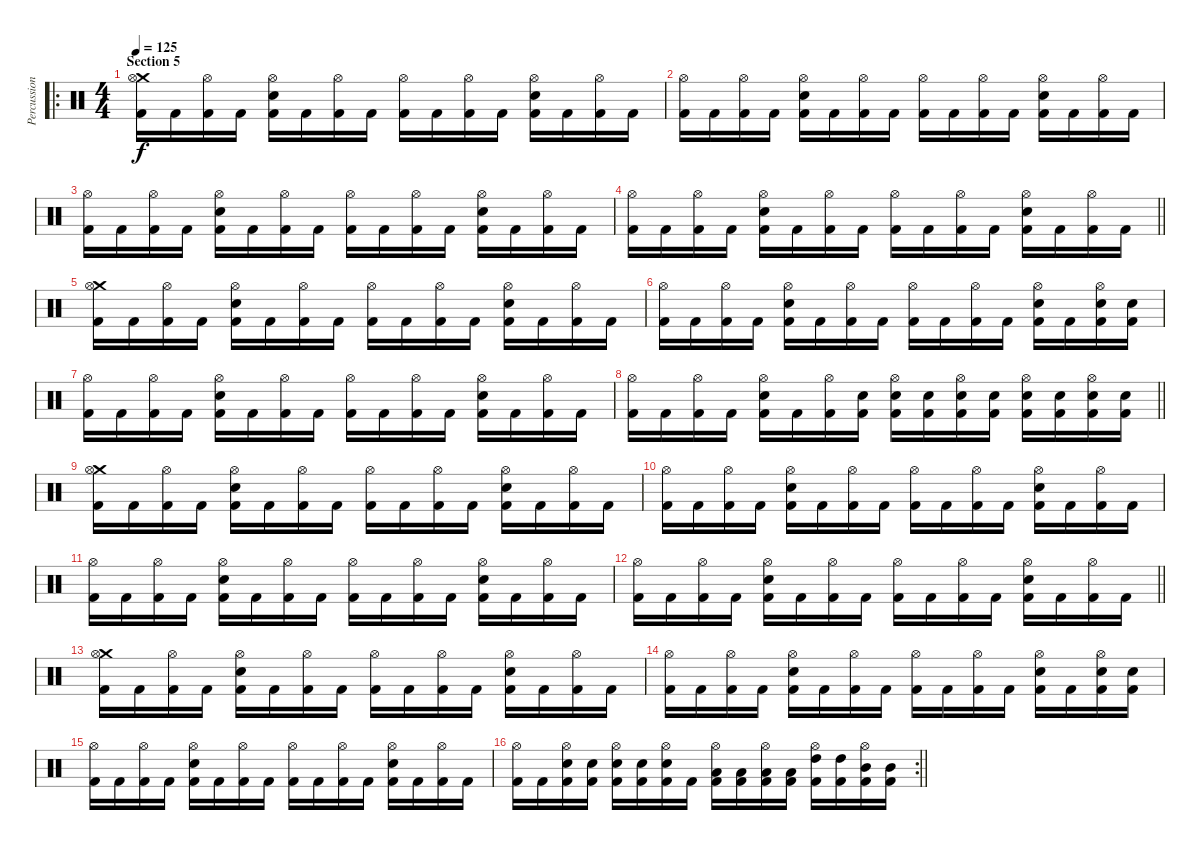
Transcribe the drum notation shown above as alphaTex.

\track ("Percussions" "Percussion") {instrument percussion}
\staff {score}
\articulation defaults
\ro
\ts (4 4)
\section ("" "Section 5")
\tempo 125
\clef neutral
\ks c
("Crash medium (hit)" "Hi-Hat (open)" "Kick (hit) 2").16{dy f} "Kick (hit) 2".16 ("Hi-Hat (open)" "Kick (hit) 2").16 "Kick (hit) 2".16 ("Hi-Hat (open)" "Electric Snare (hit)" "Kick (hit) 2").16 "Kick (hit) 2".16 ("Hi-Hat (open)" "Kick (hit) 2").16 "Kick (hit) 2".16 ("Hi-Hat (open)" "Kick (hit) 2").16 "Kick (hit) 2".16 ("Hi-Hat (open)" "Kick (hit) 2").16 "Kick (hit) 2".16 ("Hi-Hat (open)" "Electric Snare (hit)" "Kick (hit) 2").16 "Kick (hit) 2".16 ("Hi-Hat (open)" "Kick (hit) 2").16 "Kick (hit) 2".16 |
("Hi-Hat (open)" "Kick (hit) 2").16 "Kick (hit) 2".16 ("Hi-Hat (open)" "Kick (hit) 2").16 "Kick (hit) 2".16 ("Hi-Hat (open)" "Electric Snare (hit)" "Kick (hit) 2").16 "Kick (hit) 2".16 ("Hi-Hat (open)" "Kick (hit) 2").16 "Kick (hit) 2".16 ("Hi-Hat (open)" "Kick (hit) 2").16 "Kick (hit) 2".16 ("Hi-Hat (open)" "Kick (hit) 2").16 "Kick (hit) 2".16 ("Hi-Hat (open)" "Electric Snare (hit)" "Kick (hit) 2").16 "Kick (hit) 2".16 ("Hi-Hat (open)" "Kick (hit) 2").16 "Kick (hit) 2".16 |
("Hi-Hat (open)" "Kick (hit) 2").16 "Kick (hit) 2".16 ("Hi-Hat (open)" "Kick (hit) 2").16 "Kick (hit) 2".16 ("Hi-Hat (open)" "Electric Snare (hit)" "Kick (hit) 2").16 "Kick (hit) 2".16 ("Hi-Hat (open)" "Kick (hit) 2").16 "Kick (hit) 2".16 ("Hi-Hat (open)" "Kick (hit) 2").16 "Kick (hit) 2".16 ("Hi-Hat (open)" "Kick (hit) 2").16 "Kick (hit) 2".16 ("Hi-Hat (open)" "Electric Snare (hit)" "Kick (hit) 2").16 "Kick (hit) 2".16 ("Hi-Hat (open)" "Kick (hit) 2").16 "Kick (hit) 2".16 |
\barLineRight lightlight
("Hi-Hat (open)" "Kick (hit) 2").16 "Kick (hit) 2".16 ("Hi-Hat (open)" "Kick (hit) 2").16 "Kick (hit) 2".16 ("Hi-Hat (open)" "Electric Snare (hit)" "Kick (hit) 2").16 "Kick (hit) 2".16 ("Hi-Hat (open)" "Kick (hit) 2").16 "Kick (hit) 2".16 ("Hi-Hat (open)" "Kick (hit) 2").16 "Kick (hit) 2".16 ("Hi-Hat (open)" "Kick (hit) 2").16 "Kick (hit) 2".16 ("Hi-Hat (open)" "Electric Snare (hit)" "Kick (hit) 2").16 "Kick (hit) 2".16 ("Hi-Hat (open)" "Kick (hit) 2").16 "Kick (hit) 2".16 |
("Crash medium (hit)" "Hi-Hat (open)" "Kick (hit) 2").16 "Kick (hit) 2".16 ("Hi-Hat (open)" "Kick (hit) 2").16 "Kick (hit) 2".16 ("Hi-Hat (open)" "Electric Snare (hit)" "Kick (hit) 2").16 "Kick (hit) 2".16 ("Hi-Hat (open)" "Kick (hit) 2").16 "Kick (hit) 2".16 ("Hi-Hat (open)" "Kick (hit) 2").16 "Kick (hit) 2".16 ("Hi-Hat (open)" "Kick (hit) 2").16 "Kick (hit) 2".16 ("Hi-Hat (open)" "Electric Snare (hit)" "Kick (hit) 2").16 "Kick (hit) 2".16 ("Hi-Hat (open)" "Kick (hit) 2").16 "Kick (hit) 2".16 |
("Hi-Hat (open)" "Kick (hit) 2").16 "Kick (hit) 2".16 ("Hi-Hat (open)" "Kick (hit) 2").16 "Kick (hit) 2".16 ("Hi-Hat (open)" "Electric Snare (hit)" "Kick (hit) 2").16 "Kick (hit) 2".16 ("Hi-Hat (open)" "Kick (hit) 2").16 "Kick (hit) 2".16 ("Hi-Hat (open)" "Kick (hit) 2").16 "Kick (hit) 2".16 ("Hi-Hat (open)" "Kick (hit) 2").16 "Kick (hit) 2".16 ("Hi-Hat (open)" "Electric Snare (hit)" "Kick (hit) 2").16 "Kick (hit) 2".16 ("Hi-Hat (open)" "Electric Snare (hit)" "Kick (hit) 2").16 ("Electric Snare (hit)" "Kick (hit) 2").16 |
("Hi-Hat (open)" "Kick (hit) 2").16 "Kick (hit) 2".16 ("Hi-Hat (open)" "Kick (hit) 2").16 "Kick (hit) 2".16 ("Hi-Hat (open)" "Electric Snare (hit)" "Kick (hit) 2").16 "Kick (hit) 2".16 ("Hi-Hat (open)" "Kick (hit) 2").16 "Kick (hit) 2".16 ("Hi-Hat (open)" "Kick (hit) 2").16 "Kick (hit) 2".16 ("Hi-Hat (open)" "Kick (hit) 2").16 "Kick (hit) 2".16 ("Hi-Hat (open)" "Electric Snare (hit)" "Kick (hit) 2").16 "Kick (hit) 2".16 ("Hi-Hat (open)" "Kick (hit) 2").16 "Kick (hit) 2".16 |
\barLineRight lightlight
("Hi-Hat (open)" "Kick (hit) 2").16 "Kick (hit) 2".16 ("Hi-Hat (open)" "Kick (hit) 2").16 "Kick (hit) 2".16 ("Hi-Hat (open)" "Electric Snare (hit)" "Kick (hit) 2").16 "Kick (hit) 2".16 ("Hi-Hat (open)" "Kick (hit) 2").16 ("Electric Snare (hit)" "Kick (hit) 2").16 ("Hi-Hat (open)" "Electric Snare (hit)" "Kick (hit) 2").16 ("Electric Snare (hit)" "Kick (hit) 2").16 ("Hi-Hat (open)" "Electric Snare (hit)" "Kick (hit) 2").16 ("Electric Snare (hit)" "Kick (hit) 2").16 ("Hi-Hat (open)" "Electric Snare (hit)" "Kick (hit) 2").16 ("Electric Snare (hit)" "Kick (hit) 2").16 ("Hi-Hat (open)" "Electric Snare (hit)" "Kick (hit) 2").16 ("Electric Snare (hit)" "Kick (hit) 2").16 |
("Crash medium (hit)" "Hi-Hat (open)" "Kick (hit) 2").16 "Kick (hit) 2".16 ("Hi-Hat (open)" "Kick (hit) 2").16 "Kick (hit) 2".16 ("Hi-Hat (open)" "Electric Snare (hit)" "Kick (hit) 2").16 "Kick (hit) 2".16 ("Hi-Hat (open)" "Kick (hit) 2").16 "Kick (hit) 2".16 ("Hi-Hat (open)" "Kick (hit) 2").16 "Kick (hit) 2".16 ("Hi-Hat (open)" "Kick (hit) 2").16 "Kick (hit) 2".16 ("Hi-Hat (open)" "Electric Snare (hit)" "Kick (hit) 2").16 "Kick (hit) 2".16 ("Hi-Hat (open)" "Kick (hit) 2").16 "Kick (hit) 2".16 |
("Hi-Hat (open)" "Kick (hit) 2").16 "Kick (hit) 2".16 ("Hi-Hat (open)" "Kick (hit) 2").16 "Kick (hit) 2".16 ("Hi-Hat (open)" "Electric Snare (hit)" "Kick (hit) 2").16 "Kick (hit) 2".16 ("Hi-Hat (open)" "Kick (hit) 2").16 "Kick (hit) 2".16 ("Hi-Hat (open)" "Kick (hit) 2").16 "Kick (hit) 2".16 ("Hi-Hat (open)" "Kick (hit) 2").16 "Kick (hit) 2".16 ("Hi-Hat (open)" "Electric Snare (hit)" "Kick (hit) 2").16 "Kick (hit) 2".16 ("Hi-Hat (open)" "Kick (hit) 2").16 "Kick (hit) 2".16 |
("Hi-Hat (open)" "Kick (hit) 2").16 "Kick (hit) 2".16 ("Hi-Hat (open)" "Kick (hit) 2").16 "Kick (hit) 2".16 ("Hi-Hat (open)" "Electric Snare (hit)" "Kick (hit) 2").16 "Kick (hit) 2".16 ("Hi-Hat (open)" "Kick (hit) 2").16 "Kick (hit) 2".16 ("Hi-Hat (open)" "Kick (hit) 2").16 "Kick (hit) 2".16 ("Hi-Hat (open)" "Kick (hit) 2").16 "Kick (hit) 2".16 ("Hi-Hat (open)" "Electric Snare (hit)" "Kick (hit) 2").16 "Kick (hit) 2".16 ("Hi-Hat (open)" "Kick (hit) 2").16 "Kick (hit) 2".16 |
\barLineRight lightlight
("Hi-Hat (open)" "Kick (hit) 2").16 "Kick (hit) 2".16 ("Hi-Hat (open)" "Kick (hit) 2").16 "Kick (hit) 2".16 ("Hi-Hat (open)" "Electric Snare (hit)" "Kick (hit) 2").16 "Kick (hit) 2".16 ("Hi-Hat (open)" "Kick (hit) 2").16 "Kick (hit) 2".16 ("Hi-Hat (open)" "Kick (hit) 2").16 "Kick (hit) 2".16 ("Hi-Hat (open)" "Kick (hit) 2").16 "Kick (hit) 2".16 ("Hi-Hat (open)" "Electric Snare (hit)" "Kick (hit) 2").16 "Kick (hit) 2".16 ("Hi-Hat (open)" "Kick (hit) 2").16 "Kick (hit) 2".16 |
("Crash medium (hit)" "Hi-Hat (open)" "Kick (hit) 2").16 "Kick (hit) 2".16 ("Hi-Hat (open)" "Kick (hit) 2").16 "Kick (hit) 2".16 ("Hi-Hat (open)" "Electric Snare (hit)" "Kick (hit) 2").16 "Kick (hit) 2".16 ("Hi-Hat (open)" "Kick (hit) 2").16 "Kick (hit) 2".16 ("Hi-Hat (open)" "Kick (hit) 2").16 "Kick (hit) 2".16 ("Hi-Hat (open)" "Kick (hit) 2").16 "Kick (hit) 2".16 ("Hi-Hat (open)" "Electric Snare (hit)" "Kick (hit) 2").16 "Kick (hit) 2".16 ("Hi-Hat (open)" "Kick (hit) 2").16 "Kick (hit) 2".16 |
("Hi-Hat (open)" "Kick (hit) 2").16 "Kick (hit) 2".16 ("Hi-Hat (open)" "Kick (hit) 2").16 "Kick (hit) 2".16 ("Hi-Hat (open)" "Electric Snare (hit)" "Kick (hit) 2").16 "Kick (hit) 2".16 ("Hi-Hat (open)" "Kick (hit) 2").16 "Kick (hit) 2".16 ("Hi-Hat (open)" "Kick (hit) 2").16 "Kick (hit) 2".16 ("Hi-Hat (open)" "Kick (hit) 2").16 "Kick (hit) 2".16 ("Hi-Hat (open)" "Electric Snare (hit)" "Kick (hit) 2").16 "Kick (hit) 2".16 ("Hi-Hat (open)" "Electric Snare (hit)" "Kick (hit) 2").16 ("Electric Snare (hit)" "Kick (hit) 2").16 |
("Hi-Hat (open)" "Kick (hit) 2").16 "Kick (hit) 2".16 ("Hi-Hat (open)" "Kick (hit) 2").16 "Kick (hit) 2".16 ("Hi-Hat (open)" "Electric Snare (hit)" "Kick (hit) 2").16 "Kick (hit) 2".16 ("Hi-Hat (open)" "Kick (hit) 2").16 "Kick (hit) 2".16 ("Hi-Hat (open)" "Kick (hit) 2").16 "Kick (hit) 2".16 ("Hi-Hat (open)" "Kick (hit) 2").16 "Kick (hit) 2".16 ("Hi-Hat (open)" "Electric Snare (hit)" "Kick (hit) 2").16 "Kick (hit) 2".16 ("Hi-Hat (open)" "Kick (hit) 2").16 "Kick (hit) 2".16 |
\rc 2
\barLineRight lightlight
("Hi-Hat (open)" "Kick (hit) 2").16 "Kick (hit) 2".16 ("Hi-Hat (open)" "Electric Snare (hit)" "Kick (hit) 2").16 ("Electric Snare (hit)" "Kick (hit) 2").16 ("Hi-Hat (open)" "Electric Snare (hit)" "Kick (hit) 2").16 ("Electric Snare (hit)" "Kick (hit) 2").16 ("Hi-Hat (open)" "Electric Snare (hit)" "Kick (hit) 2").16 "Kick (hit) 2".16 ("Hi-Hat (open)" "Low Tom (hit)" "Kick (hit) 2").16 ("Low Tom (hit)" "Kick (hit) 2").16 ("Hi-Hat (open)" "Low Tom (hit)" "Kick (hit) 2").16 ("Low Tom (hit)" "Kick (hit) 2").16 ("Hi-Hat (open)" "High Tom (hit)" "Kick (hit) 2").16 ("High Tom (hit)" "Kick (hit) 2").16 ("Hi-Hat (open)" "Mid Tom (hit)" "Kick (hit) 2").16 ("Mid Tom (hit)" "Kick (hit) 2").16
